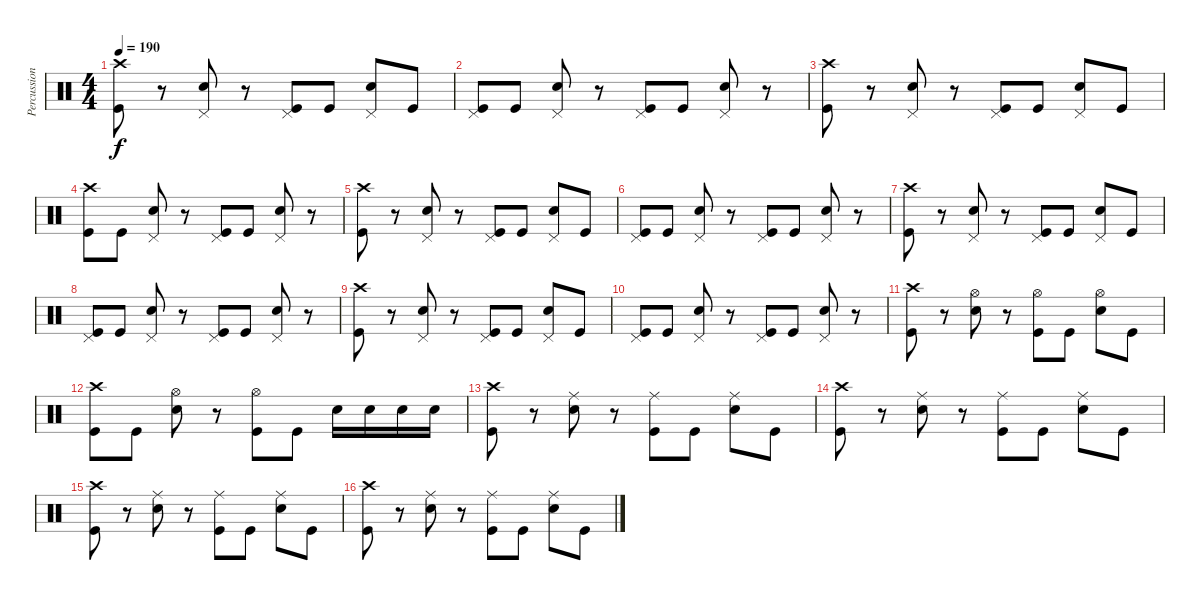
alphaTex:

\track ("Percussion" "Percussion") {instrument percussion}
\staff {score}
\articulation defaults
\ts (4 4)
\tempo 190
\clef neutral
\ks c
("Crash high (hit)" "Kick (hit)").8{dy f} r.8 ("Pedal Hi-Hat (hit)" "Electric Snare (hit)").8 r.8 ("Pedal Hi-Hat (hit)" "Kick (hit)").8 "Kick (hit)".8 ("Pedal Hi-Hat (hit)" "Electric Snare (hit)").8 "Kick (hit)".8 |
("Pedal Hi-Hat (hit)" "Kick (hit)").8 "Kick (hit)".8 ("Pedal Hi-Hat (hit)" "Electric Snare (hit)").8 r.8 ("Pedal Hi-Hat (hit)" "Kick (hit)").8 "Kick (hit)".8 ("Pedal Hi-Hat (hit)" "Electric Snare (hit)").8 r.8 |
("Crash high (hit)" "Kick (hit)").8 r.8 ("Pedal Hi-Hat (hit)" "Electric Snare (hit)").8 r.8 ("Pedal Hi-Hat (hit)" "Kick (hit)").8 "Kick (hit)".8 ("Pedal Hi-Hat (hit)" "Electric Snare (hit)").8 "Kick (hit)".8 |
("Crash high (hit)" "Kick (hit)").8 "Kick (hit)".8 ("Pedal Hi-Hat (hit)" "Electric Snare (hit)").8 r.8 ("Pedal Hi-Hat (hit)" "Kick (hit)").8 "Kick (hit)".8 ("Pedal Hi-Hat (hit)" "Electric Snare (hit)").8 r.8 |
("Crash high (hit)" "Kick (hit)").8 r.8 ("Pedal Hi-Hat (hit)" "Electric Snare (hit)").8 r.8 ("Pedal Hi-Hat (hit)" "Kick (hit)").8 "Kick (hit)".8 ("Pedal Hi-Hat (hit)" "Electric Snare (hit)").8 "Kick (hit)".8 |
("Pedal Hi-Hat (hit)" "Kick (hit)").8 "Kick (hit)".8 ("Pedal Hi-Hat (hit)" "Electric Snare (hit)").8 r.8 ("Pedal Hi-Hat (hit)" "Kick (hit)").8 "Kick (hit)".8 ("Pedal Hi-Hat (hit)" "Electric Snare (hit)").8 r.8 |
("Crash high (hit)" "Kick (hit)").8 r.8 ("Pedal Hi-Hat (hit)" "Electric Snare (hit)").8 r.8 ("Pedal Hi-Hat (hit)" "Kick (hit)").8 "Kick (hit)".8 ("Pedal Hi-Hat (hit)" "Electric Snare (hit)").8 "Kick (hit)".8 |
("Pedal Hi-Hat (hit)" "Kick (hit)").8 "Kick (hit)".8 ("Pedal Hi-Hat (hit)" "Electric Snare (hit)").8 r.8 ("Pedal Hi-Hat (hit)" "Kick (hit)").8 "Kick (hit)".8 ("Pedal Hi-Hat (hit)" "Electric Snare (hit)").8 r.8 |
("Crash high (hit)" "Kick (hit)").8 r.8 ("Pedal Hi-Hat (hit)" "Electric Snare (hit)").8 r.8 ("Pedal Hi-Hat (hit)" "Kick (hit)").8 "Kick (hit)".8 ("Pedal Hi-Hat (hit)" "Electric Snare (hit)").8 "Kick (hit)".8 |
("Pedal Hi-Hat (hit)" "Kick (hit)").8 "Kick (hit)".8 ("Pedal Hi-Hat (hit)" "Electric Snare (hit)").8 r.8 ("Pedal Hi-Hat (hit)" "Kick (hit)").8 "Kick (hit)".8 ("Pedal Hi-Hat (hit)" "Electric Snare (hit)").8 r.8 |
("Crash high (hit)" "Kick (hit)").8 r.8 ("Hi-Hat (open)" "Electric Snare (hit)").8 r.8 ("Hi-Hat (open)" "Kick (hit)").8 "Kick (hit)".8 ("Hi-Hat (open)" "Electric Snare (hit)").8 "Kick (hit)".8 |
("Crash high (hit)" "Kick (hit)").8 "Kick (hit)".8 ("Hi-Hat (open)" "Electric Snare (hit)").8 r.8 ("Hi-Hat (open)" "Kick (hit)").8 "Kick (hit)".8 "Electric Snare (hit)".16 "Electric Snare (hit)".16 "Electric Snare (hit)".16 "Electric Snare (hit)".16 |
("Crash high (hit)" "Kick (hit)").8 r.8 ("Ride (middle)" "Electric Snare (hit)").8 r.8 ("Ride (middle)" "Kick (hit)").8 "Kick (hit)".8 ("Ride (middle)" "Electric Snare (hit)").8 "Kick (hit)".8 |
("Crash high (hit)" "Kick (hit)").8 r.8 ("Ride (middle)" "Electric Snare (hit)").8 r.8 ("Ride (middle)" "Kick (hit)").8 "Kick (hit)".8 ("Ride (middle)" "Electric Snare (hit)").8 "Kick (hit)".8 |
("Crash high (hit)" "Kick (hit)").8 r.8 ("Ride (middle)" "Electric Snare (hit)").8 r.8 ("Ride (middle)" "Kick (hit)").8 "Kick (hit)".8 ("Ride (middle)" "Electric Snare (hit)").8 "Kick (hit)".8 |
("Crash high (hit)" "Kick (hit)").8 r.8 ("Ride (middle)" "Electric Snare (hit)").8 r.8 ("Ride (middle)" "Kick (hit)").8 "Kick (hit)".8 ("Ride (middle)" "Electric Snare (hit)").8 "Kick (hit)".8
